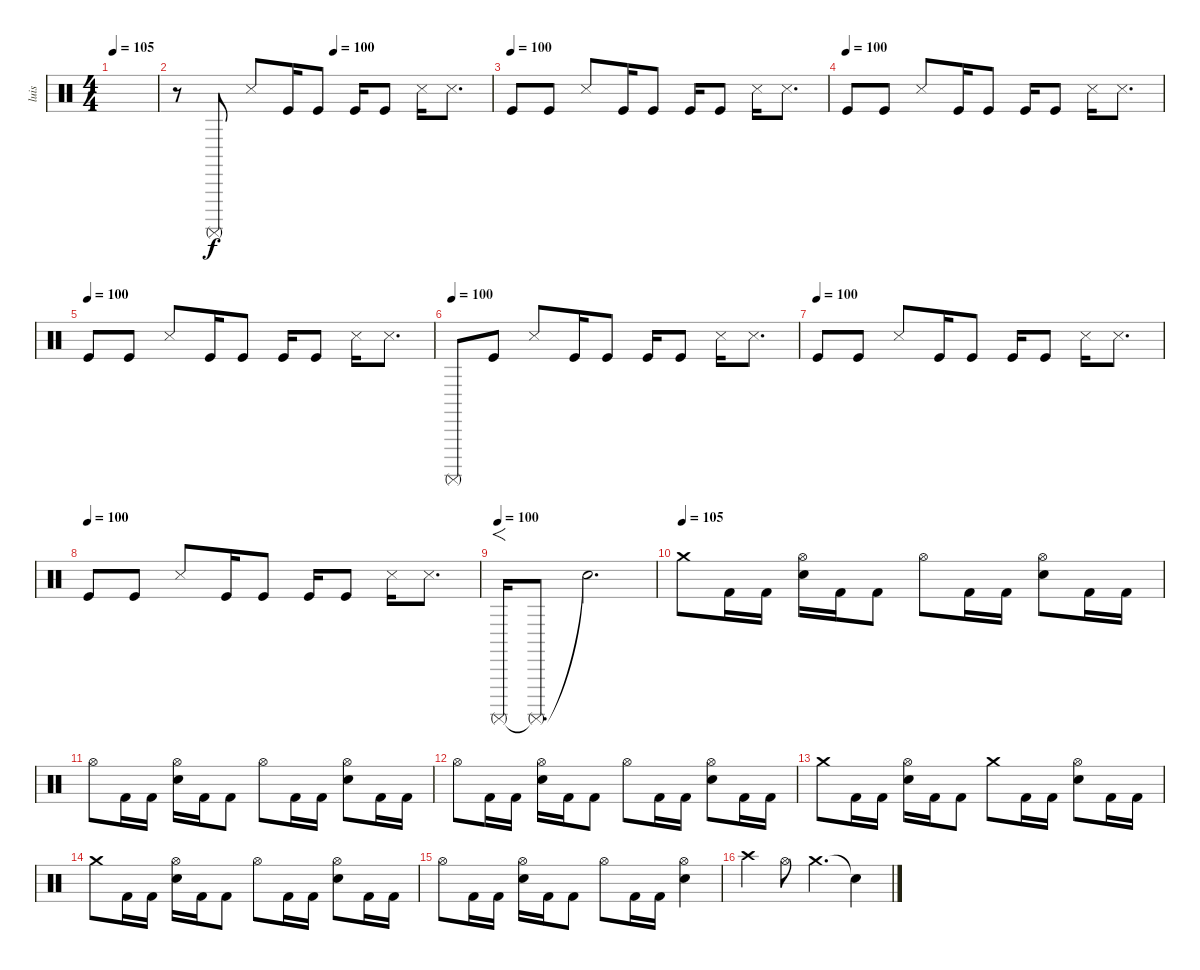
\track ("luis" "luis") {instrument percussion}
\staff {score}
\articulation defaults
\ts (4 4)
\tempo 105
\tempo 100
\tempo 105
\clef neutral
\ks c
|
\tempo (100 0.5)
r.8 "Surdo (mute)".8 "Snare (side stick) 3".8{dy f} "Kick (hit)".16 "Kick (hit)".8 "Kick (hit)".16 "Kick (hit)".8 "Snare (side stick) 3".16 "Snare (side stick) 3".8{d} |
\tempo (100)
"Kick (hit)".8 "Kick (hit)".8 "Snare (side stick) 3".8 "Kick (hit)".16 "Kick (hit)".8 "Kick (hit)".16 "Kick (hit)".8 "Snare (side stick) 3".16 "Snare (side stick) 3".8{d} |
\tempo (100)
"Kick (hit)".8 "Kick (hit)".8 "Snare (side stick) 3".8 "Kick (hit)".16 "Kick (hit)".8 "Kick (hit)".16 "Kick (hit)".8 "Snare (side stick) 3".16 "Snare (side stick) 3".8{d} |
\tempo (100)
"Kick (hit)".8 "Kick (hit)".8 "Snare (side stick) 3".8 "Kick (hit)".16 "Kick (hit)".8 "Kick (hit)".16 "Kick (hit)".8 "Snare (side stick) 3".16 "Snare (side stick) 3".8{d} |
\tempo (100)
"Surdo (mute)".8 "Kick (hit)".8 "Snare (side stick) 3".8 "Kick (hit)".16 "Kick (hit)".8 "Kick (hit)".16 "Kick (hit)".8 "Snare (side stick) 3".16 "Snare (side stick) 3".8{d} |
\tempo (100)
"Kick (hit)".8 "Kick (hit)".8 "Snare (side stick) 3".8 "Kick (hit)".16 "Kick (hit)".8 "Kick (hit)".16 "Kick (hit)".8 "Snare (side stick) 3".16 "Snare (side stick) 3".8{d} |
\tempo (100)
"Kick (hit)".8 "Kick (hit)".8 "Snare (side stick) 3".8 "Kick (hit)".16 "Kick (hit)".8 "Kick (hit)".16 "Kick (hit)".8 "Snare (side stick) 3".16 "Snare (side stick) 3".8{d} |
\tempo (100)
"Surdo (mute)".16{f} "Surdo (mute)"{t}.8{d} "Snare (hit)"{t}.2{d} |
\tempo (105)
"Crash medium (hit)".8 "Kick (hit) 2".16 "Kick (hit) 2".16 ("Hi-Hat (open)" "Electric Snare (hit)").16 "Kick (hit) 2".16 "Kick (hit) 2".8 "Hi-Hat (open)".8 "Kick (hit) 2".16 "Kick (hit) 2".16 ("Hi-Hat (open)" "Electric Snare (hit)").8 "Kick (hit) 2".16 "Kick (hit) 2".16 |
"Hi-Hat (open)".8 "Kick (hit) 2".16 "Kick (hit) 2".16 ("Hi-Hat (open)" "Electric Snare (hit)").16 "Kick (hit) 2".16 "Kick (hit) 2".8 "Hi-Hat (open)".8 "Kick (hit) 2".16 "Kick (hit) 2".16 ("Hi-Hat (open)" "Electric Snare (hit)").8 "Kick (hit) 2".16 "Kick (hit) 2".16 |
"Hi-Hat (open)".8 "Kick (hit) 2".16 "Kick (hit) 2".16 ("Hi-Hat (open)" "Electric Snare (hit)").16 "Kick (hit) 2".16 "Kick (hit) 2".8 "Hi-Hat (open)".8 "Kick (hit) 2".16 "Kick (hit) 2".16 ("Hi-Hat (open)" "Electric Snare (hit)").8 "Kick (hit) 2".16 "Kick (hit) 2".16 |
"Crash medium (hit)".8 "Kick (hit) 2".16 "Kick (hit) 2".16 ("Hi-Hat (open)" "Electric Snare (hit)").16 "Kick (hit) 2".16 "Kick (hit) 2".8 "Crash medium (hit)".8 "Kick (hit) 2".16 "Kick (hit) 2".16 ("Hi-Hat (open)" "Electric Snare (hit)").8 "Kick (hit) 2".16 "Kick (hit) 2".16 |
"Crash medium (hit)".8 "Kick (hit) 2".16 "Kick (hit) 2".16 ("Hi-Hat (open)" "Electric Snare (hit)").16 "Kick (hit) 2".16 "Kick (hit) 2".8 "Hi-Hat (open)".8 "Kick (hit) 2".16 "Kick (hit) 2".16 ("Hi-Hat (open)" "Electric Snare (hit)").8 "Kick (hit) 2".16 "Kick (hit) 2".16 |
"Hi-Hat (open)".8 "Kick (hit) 2".16 "Kick (hit) 2".16 ("Hi-Hat (open)" "Electric Snare (hit)").16 "Kick (hit) 2".16 "Kick (hit) 2".8 "Hi-Hat (open)".8 "Kick (hit) 2".16 "Kick (hit) 2".16 ("Hi-Hat (open)" "Electric Snare (hit)").4 |
"Crash high (hit)".4 "Hi-Hat (open)".8 "Crash medium (hit)".4{d} "Snare (hit)"{t}.4
